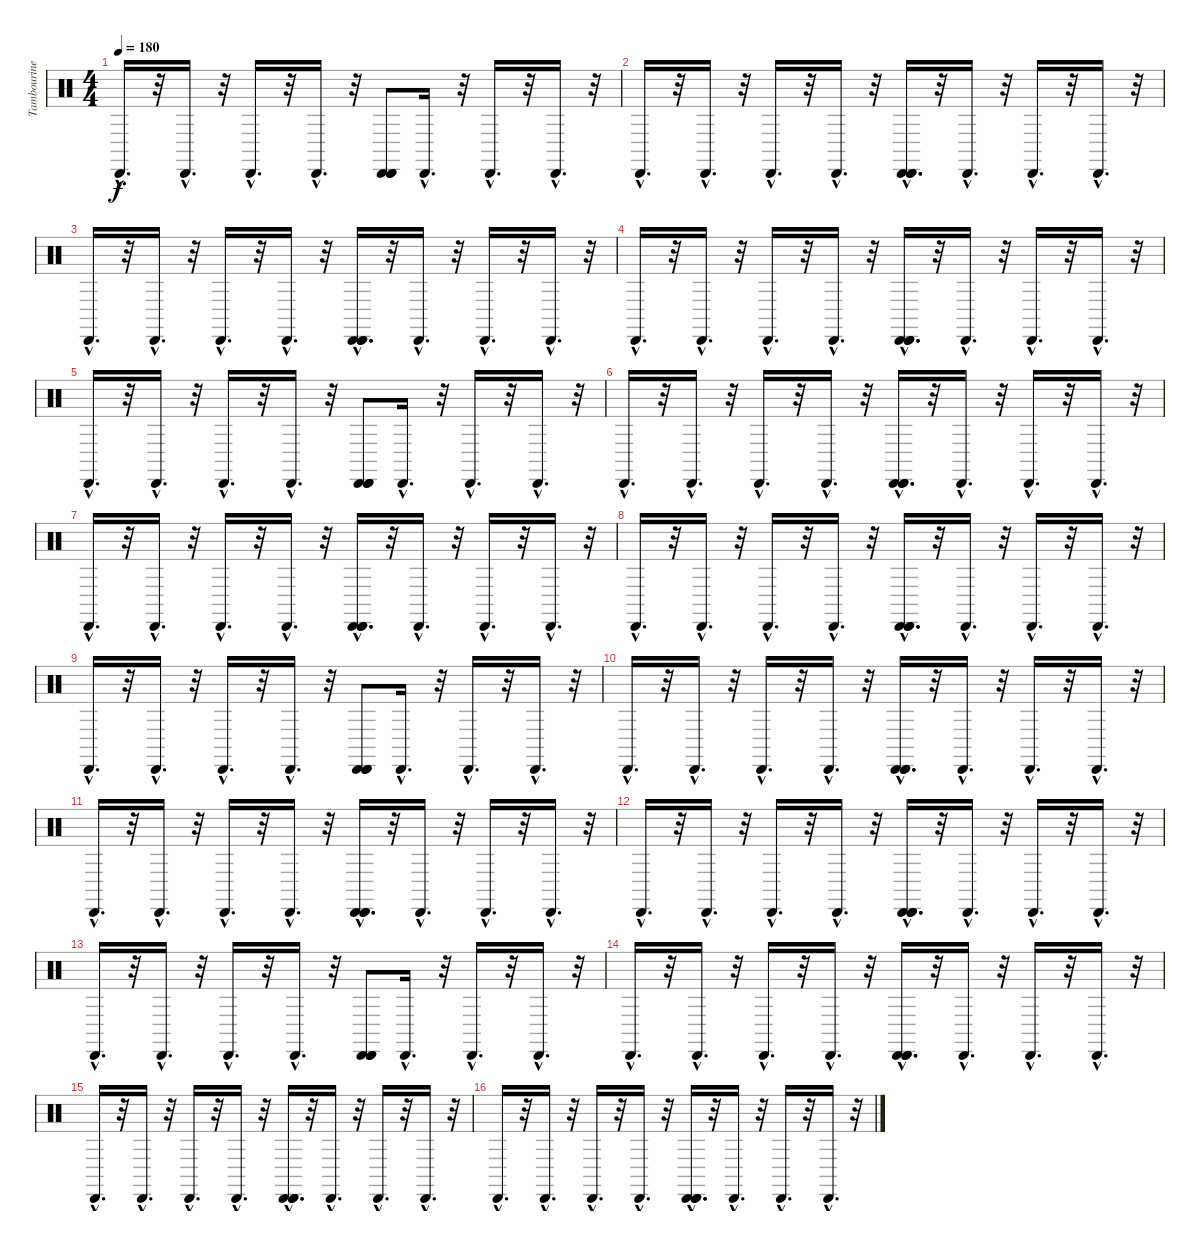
\track ("Tambourine" "Tambourine") {instrument percussion}
\staff {score}
\articulation defaults
\ts (4 4)
\tempo 180
\clef neutral
\ks c "Cabasa (hit)"{hac}.16{d dy f}
r.32 "Cabasa (hit)"{hac}.16{d} r.32 "Cabasa (hit)"{hac}.16{d} r.32 "Cabasa (hit)"{hac}.16{d} r.32 ("Cabasa (hit)" "Cabasa (hit)" "Cabasa (hit)").8 "Cabasa (hit)"{hac}.16{d} r.32 "Cabasa (hit)"{hac}.16{d} r.32 "Cabasa (hit)"{hac}.16{d} r.32 |
"Cabasa (hit)"{hac}.16{d} r.32 "Cabasa (hit)"{hac}.16{d} r.32 "Cabasa (hit)"{hac}.16{d} r.32 "Cabasa (hit)"{hac}.16{d} r.32 ("Cabasa (hit)"{hac} "Cabasa (hit)"{hac} "Cabasa (hit)"{hac}).16{d} r.32 "Cabasa (hit)"{hac}.16{d} r.32 "Cabasa (hit)"{hac}.16{d} r.32 "Cabasa (hit)"{hac}.16{d} r.32 |
"Cabasa (hit)"{hac}.16{d} r.32 "Cabasa (hit)"{hac}.16{d} r.32 "Cabasa (hit)"{hac}.16{d} r.32 "Cabasa (hit)"{hac}.16{d} r.32 ("Cabasa (hit)"{hac} "Cabasa (hit)"{hac} "Cabasa (hit)"{hac}).16{d} r.32 "Cabasa (hit)"{hac}.16{d} r.32 "Cabasa (hit)"{hac}.16{d} r.32 "Cabasa (hit)"{hac}.16{d} r.32 |
"Cabasa (hit)"{hac}.16{d} r.32 "Cabasa (hit)"{hac}.16{d} r.32 "Cabasa (hit)"{hac}.16{d} r.32 "Cabasa (hit)"{hac}.16{d} r.32 ("Cabasa (hit)"{hac} "Cabasa (hit)"{hac} "Cabasa (hit)"{hac}).16{d} r.32 "Cabasa (hit)"{hac}.16{d} r.32 "Cabasa (hit)"{hac}.16{d} r.32 "Cabasa (hit)"{hac}.16{d} r.32 |
"Cabasa (hit)"{hac}.16{d} r.32 "Cabasa (hit)"{hac}.16{d} r.32 "Cabasa (hit)"{hac}.16{d} r.32 "Cabasa (hit)"{hac}.16{d} r.32 ("Cabasa (hit)" "Cabasa (hit)" "Cabasa (hit)").8 "Cabasa (hit)"{hac}.16{d} r.32 "Cabasa (hit)"{hac}.16{d} r.32 "Cabasa (hit)"{hac}.16{d} r.32 |
"Cabasa (hit)"{hac}.16{d} r.32 "Cabasa (hit)"{hac}.16{d} r.32 "Cabasa (hit)"{hac}.16{d} r.32 "Cabasa (hit)"{hac}.16{d} r.32 ("Cabasa (hit)"{hac} "Cabasa (hit)"{hac} "Cabasa (hit)"{hac}).16{d} r.32 "Cabasa (hit)"{hac}.16{d} r.32 "Cabasa (hit)"{hac}.16{d} r.32 "Cabasa (hit)"{hac}.16{d} r.32 |
"Cabasa (hit)"{hac}.16{d} r.32 "Cabasa (hit)"{hac}.16{d} r.32 "Cabasa (hit)"{hac}.16{d} r.32 "Cabasa (hit)"{hac}.16{d} r.32 ("Cabasa (hit)"{hac} "Cabasa (hit)"{hac} "Cabasa (hit)"{hac}).16{d} r.32 "Cabasa (hit)"{hac}.16{d} r.32 "Cabasa (hit)"{hac}.16{d} r.32 "Cabasa (hit)"{hac}.16{d} r.32 |
"Cabasa (hit)"{hac}.16{d} r.32 "Cabasa (hit)"{hac}.16{d} r.32 "Cabasa (hit)"{hac}.16{d} r.32 "Cabasa (hit)"{hac}.16{d} r.32 ("Cabasa (hit)"{hac} "Cabasa (hit)"{hac} "Cabasa (hit)"{hac}).16{d} r.32 "Cabasa (hit)"{hac}.16{d} r.32 "Cabasa (hit)"{hac}.16{d} r.32 "Cabasa (hit)"{hac}.16{d} r.32 |
"Cabasa (hit)"{hac}.16{d} r.32 "Cabasa (hit)"{hac}.16{d} r.32 "Cabasa (hit)"{hac}.16{d} r.32 "Cabasa (hit)"{hac}.16{d} r.32 ("Cabasa (hit)" "Cabasa (hit)" "Cabasa (hit)").8 "Cabasa (hit)"{hac}.16{d} r.32 "Cabasa (hit)"{hac}.16{d} r.32 "Cabasa (hit)"{hac}.16{d} r.32 |
"Cabasa (hit)"{hac}.16{d} r.32 "Cabasa (hit)"{hac}.16{d} r.32 "Cabasa (hit)"{hac}.16{d} r.32 "Cabasa (hit)"{hac}.16{d} r.32 ("Cabasa (hit)"{hac} "Cabasa (hit)"{hac} "Cabasa (hit)"{hac}).16{d} r.32 "Cabasa (hit)"{hac}.16{d} r.32 "Cabasa (hit)"{hac}.16{d} r.32 "Cabasa (hit)"{hac}.16{d} r.32 |
"Cabasa (hit)"{hac}.16{d} r.32 "Cabasa (hit)"{hac}.16{d} r.32 "Cabasa (hit)"{hac}.16{d} r.32 "Cabasa (hit)"{hac}.16{d} r.32 ("Cabasa (hit)"{hac} "Cabasa (hit)"{hac} "Cabasa (hit)"{hac}).16{d} r.32 "Cabasa (hit)"{hac}.16{d} r.32 "Cabasa (hit)"{hac}.16{d} r.32 "Cabasa (hit)"{hac}.16{d} r.32 |
"Cabasa (hit)"{hac}.16{d} r.32 "Cabasa (hit)"{hac}.16{d} r.32 "Cabasa (hit)"{hac}.16{d} r.32 "Cabasa (hit)"{hac}.16{d} r.32 ("Cabasa (hit)"{hac} "Cabasa (hit)"{hac} "Cabasa (hit)"{hac}).16{d} r.32 "Cabasa (hit)"{hac}.16{d} r.32 "Cabasa (hit)"{hac}.16{d} r.32 "Cabasa (hit)"{hac}.16{d} r.32 |
"Cabasa (hit)"{hac}.16{d} r.32 "Cabasa (hit)"{hac}.16{d} r.32 "Cabasa (hit)"{hac}.16{d} r.32 "Cabasa (hit)"{hac}.16{d} r.32 ("Cabasa (hit)" "Cabasa (hit)" "Cabasa (hit)").8 "Cabasa (hit)"{hac}.16{d} r.32 "Cabasa (hit)"{hac}.16{d} r.32 "Cabasa (hit)"{hac}.16{d} r.32 |
"Cabasa (hit)"{hac}.16{d} r.32 "Cabasa (hit)"{hac}.16{d} r.32 "Cabasa (hit)"{hac}.16{d} r.32 "Cabasa (hit)"{hac}.16{d} r.32 ("Cabasa (hit)"{hac} "Cabasa (hit)"{hac} "Cabasa (hit)"{hac}).16{d} r.32 "Cabasa (hit)"{hac}.16{d} r.32 "Cabasa (hit)"{hac}.16{d} r.32 "Cabasa (hit)"{hac}.16{d} r.32 |
"Cabasa (hit)"{hac}.16{d} r.32 "Cabasa (hit)"{hac}.16{d} r.32 "Cabasa (hit)"{hac}.16{d} r.32 "Cabasa (hit)"{hac}.16{d} r.32 ("Cabasa (hit)"{hac} "Cabasa (hit)"{hac} "Cabasa (hit)"{hac}).16{d} r.32 "Cabasa (hit)"{hac}.16{d} r.32 "Cabasa (hit)"{hac}.16{d} r.32 "Cabasa (hit)"{hac}.16{d} r.32 |
"Cabasa (hit)"{hac}.16{d} r.32 "Cabasa (hit)"{hac}.16{d} r.32 "Cabasa (hit)"{hac}.16{d} r.32 "Cabasa (hit)"{hac}.16{d} r.32 ("Cabasa (hit)"{hac} "Cabasa (hit)"{hac} "Cabasa (hit)"{hac}).16{d} r.32 "Cabasa (hit)"{hac}.16{d} r.32 "Cabasa (hit)"{hac}.16{d} r.32 "Cabasa (hit)"{hac}.16{d} r.32
